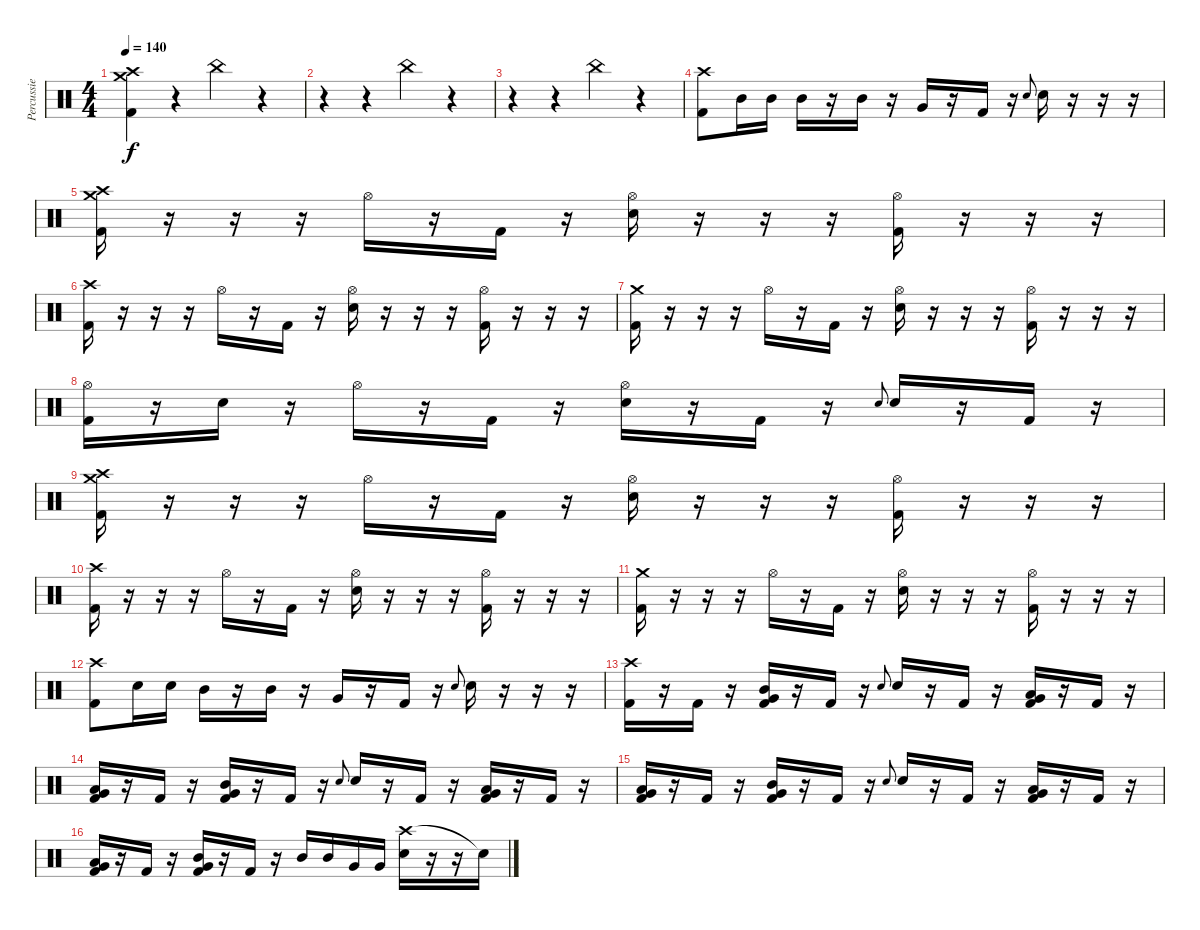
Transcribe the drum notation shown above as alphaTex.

\track ("Percussie" "Percussie") {instrument percussion}
\staff {score}
\articulation defaults
\ts (4 4)
\tempo 140
\clef neutral
\ks c
("Crash medium (hit)" "Crash high (hit)" "Kick (hit) 2").4{dy f} r.4 "China (hit)".4 r.4 |
r.4 r.4 "China (hit)".4 r.4 |
r.4 r.4 "China (hit)".4 r.4 |
("Crash high (hit)" "Kick (hit) 2").8 "Mid Tom (hit)".16 "Mid Tom (hit)".16 "Mid Tom (hit)".16 r.16 "Mid Tom (hit)".16 r.16 "Very Low Tom (hit)".16 r.16 "Kick (hit) 2".16 r.16 "Electric Snare (hit)".8{gr onbeat} "Electric Snare (hit)".16 r.16 r.16 r.16 |
("Crash high (hit)" "Crash medium (hit)" "Kick (hit) 2").16 r.16 r.16 r.16 "Hi-Hat (open)".16 r.16 "Kick (hit) 2".16 r.16 ("Hi-Hat (open)" "Electric Snare (hit)").16 r.16 r.16 r.16 ("Hi-Hat (open)" "Kick (hit) 2").16 r.16 r.16 r.16 |
("Crash high (hit)" "Kick (hit) 2").16 r.16 r.16 r.16 "Hi-Hat (open)".16 r.16 "Kick (hit) 2".16 r.16 ("Hi-Hat (open)" "Electric Snare (hit)").16 r.16 r.16 r.16 ("Hi-Hat (open)" "Kick (hit) 2").16 r.16 r.16 r.16 |
("Crash medium (hit)" "Kick (hit) 2").16 r.16 r.16 r.16 "Hi-Hat (open)".16 r.16 "Kick (hit) 2".16 r.16 ("Hi-Hat (open)" "Electric Snare (hit)").16 r.16 r.16 r.16 ("Hi-Hat (open)" "Kick (hit) 2").16 r.16 r.16 r.16 |
("Hi-Hat (open)" "Kick (hit) 2").16 r.16 "Electric Snare (hit)".16 r.16 "Hi-Hat (open)".16 r.16 "Kick (hit) 2".16 r.16 ("Hi-Hat (open)" "Electric Snare (hit)").16 r.16 "Kick (hit) 2".16 r.16 "Electric Snare (hit)".8{gr onbeat} "Electric Snare (hit)".16 r.16 "Kick (hit) 2".16 r.16 |
("Crash high (hit)" "Crash medium (hit)" "Kick (hit) 2").16 r.16 r.16 r.16 "Hi-Hat (open)".16 r.16 "Kick (hit) 2".16 r.16 ("Hi-Hat (open)" "Electric Snare (hit)").16 r.16 r.16 r.16 ("Hi-Hat (open)" "Kick (hit) 2").16 r.16 r.16 r.16 |
("Crash high (hit)" "Kick (hit) 2").16 r.16 r.16 r.16 "Hi-Hat (open)".16 r.16 "Kick (hit) 2".16 r.16 ("Hi-Hat (open)" "Electric Snare (hit)").16 r.16 r.16 r.16 ("Hi-Hat (open)" "Kick (hit) 2").16 r.16 r.16 r.16 |
("Crash medium (hit)" "Kick (hit) 2").16 r.16 r.16 r.16 "Hi-Hat (open)".16 r.16 "Kick (hit) 2".16 r.16 ("Hi-Hat (open)" "Electric Snare (hit)").16 r.16 r.16 r.16 ("Hi-Hat (open)" "Kick (hit) 2").16 r.16 r.16 r.16 |
("Crash high (hit)" "Kick (hit) 2").8 "Electric Snare (hit)".16 "Electric Snare (hit)".16 "Mid Tom (hit)".16 r.16 "Mid Tom (hit)".16 r.16 "Very Low Tom (hit)".16 r.16 "Kick (hit) 2".16 r.16 "Electric Snare (hit)".8{gr onbeat} "Electric Snare (hit)".16 r.16 r.16 r.16 |
("Crash high (hit)" "Kick (hit) 2").16 r.16 "Kick (hit) 2".16 r.16 ("Mid Tom (hit)" "Very Low Tom (hit)" "Kick (hit) 2").16 r.16 "Kick (hit) 2".16 r.16 "Electric Snare (hit)".8{gr onbeat} "Electric Snare (hit)".16 r.16 "Kick (hit) 2".16 r.16 ("Low Floor Tom (hit)" "Very Low Tom (hit)" "Kick (hit) 2").16 r.16 "Kick (hit) 2".16 r.16 |
("Low Floor Tom (hit)" "Very Low Tom (hit)" "Kick (hit) 2").16 r.16 "Kick (hit) 2".16 r.16 ("Mid Tom (hit)" "Very Low Tom (hit)" "Kick (hit) 2").16 r.16 "Kick (hit) 2".16 r.16 "Electric Snare (hit)".8{gr onbeat} "Electric Snare (hit)".16 r.16 "Kick (hit) 2".16 r.16 ("Low Floor Tom (hit)" "Very Low Tom (hit)" "Kick (hit) 2").16 r.16 "Kick (hit) 2".16 r.16 |
("Low Floor Tom (hit)" "Very Low Tom (hit)" "Kick (hit) 2").16 r.16 "Kick (hit) 2".16 r.16 ("Mid Tom (hit)" "Very Low Tom (hit)" "Kick (hit) 2").16 r.16 "Kick (hit) 2".16 r.16 "Electric Snare (hit)".8{gr onbeat} "Electric Snare (hit)".16 r.16 "Kick (hit) 2".16 r.16 ("Low Floor Tom (hit)" "Very Low Tom (hit)" "Kick (hit) 2").16 r.16 "Kick (hit) 2".16 r.16 |
("Low Floor Tom (hit)" "Very Low Tom (hit)" "Kick (hit) 2").16 r.16 "Kick (hit) 2".16 r.16 ("Mid Tom (hit)" "Very Low Tom (hit)" "Kick (hit) 2").16 r.16 "Kick (hit) 2".16 r.16 "Mid Tom (hit)".16 "Mid Tom (hit)".16 "Very Low Tom (hit)".16 "Very Low Tom (hit)".16 ("Crash high (hit)" "Electric Snare (hit)").16 r.16 r.16 "Snare (hit)"{t}.16
